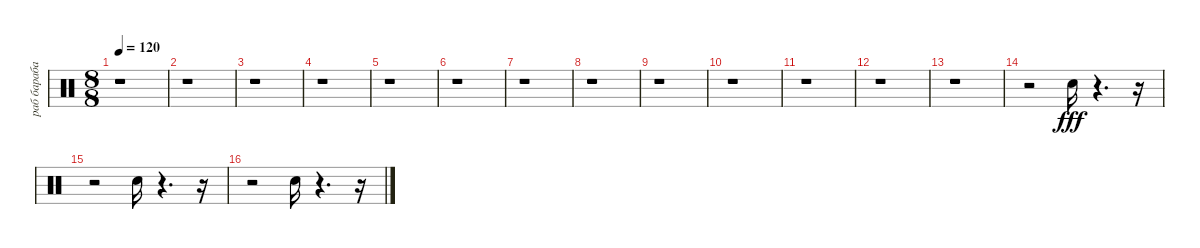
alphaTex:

\track ("раб барабан" "раб бараба") {instrument percussion}
\staff {score}
\articulation defaults
\ts (8 8)
\tempo 120
\clef neutral
\ks c
r.1{dy fff} |
r.1 |
r.1 |
r.1 |
r.1 |
r.1 |
r.1 |
r.1 |
r.1 |
r.1 |
r.1 |
r.1 |
r.1 |
r.2 "Snare (hit) 2".16 r.4{d} r.16 |
r.2 "Snare (hit) 2".16 r.4{d} r.16 |
r.2 "Snare (hit) 2".16 r.4{d} r.16
